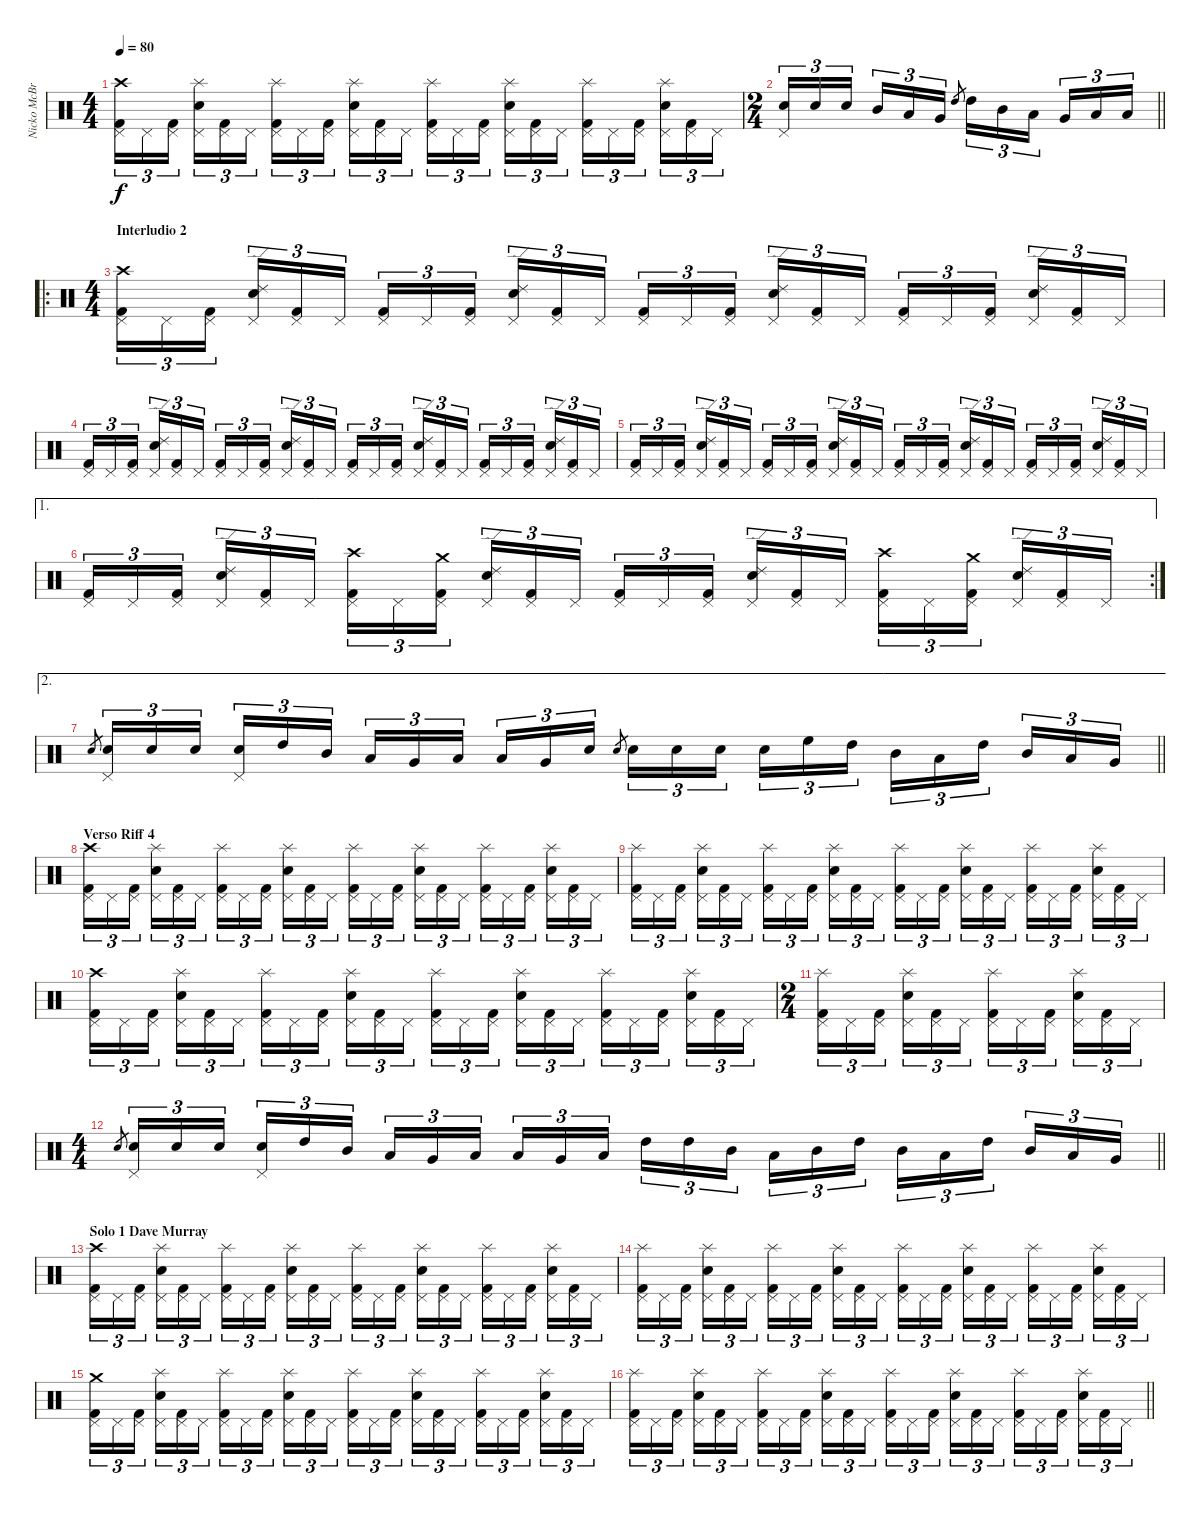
\track ("Nicko McBrain" "Nicko McBr") {instrument percussion}
\staff {score}
\articulation defaults
\ts (4 4)
\tempo 80
\clef neutral
\ks c
("Kick (hit) 2" "Pedal Hi-Hat (hit)" "Crash high (hit)").16{tu (3 2) dy f} "Pedal Hi-Hat (hit)".16{tu (3 2)} ("Kick (hit) 2" "Pedal Hi-Hat (hit)").16{tu (3 2) beam splitsecondary} ("Snare (hit) 2" "Pedal Hi-Hat (hit)" "Splash (hit)").16{tu (3 2)} ("Kick (hit) 2" "Pedal Hi-Hat (hit)").16{tu (3 2)} "Pedal Hi-Hat (hit)".16{tu (3 2)} ("Kick (hit) 2" "Pedal Hi-Hat (hit)" "Splash (hit)").16{tu (3 2)} "Pedal Hi-Hat (hit)".16{tu (3 2)} ("Kick (hit) 2" "Pedal Hi-Hat (hit)").16{tu (3 2) beam splitsecondary} ("Snare (hit) 2" "Pedal Hi-Hat (hit)" "Splash (hit)").16{tu (3 2)} ("Kick (hit) 2" "Pedal Hi-Hat (hit)").16{tu (3 2)} "Pedal Hi-Hat (hit)".16{tu (3 2)} ("Kick (hit) 2" "Pedal Hi-Hat (hit)" "Splash (hit)").16{tu (3 2)} "Pedal Hi-Hat (hit)".16{tu (3 2)} ("Kick (hit) 2" "Pedal Hi-Hat (hit)").16{tu (3 2) beam splitsecondary} ("Snare (hit) 2" "Pedal Hi-Hat (hit)" "Splash (hit)").16{tu (3 2)} ("Kick (hit) 2" "Pedal Hi-Hat (hit)").16{tu (3 2)} "Pedal Hi-Hat (hit)".16{tu (3 2)} ("Kick (hit) 2" "Pedal Hi-Hat (hit)" "Splash (hit)").16{tu (3 2)} "Pedal Hi-Hat (hit)".16{tu (3 2)} ("Kick (hit) 2" "Pedal Hi-Hat (hit)").16{tu (3 2) beam splitsecondary} ("Snare (hit) 2" "Pedal Hi-Hat (hit)" "Splash (hit)").16{tu (3 2)} ("Kick (hit) 2" "Pedal Hi-Hat (hit)").16{tu (3 2)} "Pedal Hi-Hat (hit)".16{tu (3 2)} |
\ts (2 4)
\barLineRight lightlight
("Snare (hit) 2" "Pedal Hi-Hat (hit)").16{tu (3 2)} "Snare (hit) 2".16{tu (3 2)} "Snare (hit) 2".16{tu (3 2) beam splitsecondary} "Mid Tom (hit)".16{tu (3 2)} "Low Tom (hit)".16{tu (3 2)} "Very Low Tom (hit)".16{tu (3 2)} "High Tom (hit)".8{gr} "High Tom (hit)".16{tu (3 2)} "Mid Tom (hit)".16{tu (3 2)} "Low Tom (hit)".16{tu (3 2) beam splitsecondary} "Very Low Tom (hit)".16{tu (3 2)} "Low Tom (hit)".16{tu (3 2)} "Low Floor Tom (hit)".16{tu (3 2)} |
\ro
\ts (4 4)
\section ("" "Interludio 2")
("Kick (hit) 2" "Pedal Hi-Hat (hit)" "Crash high (hit)").16{tu (3 2)} "Pedal Hi-Hat (hit)".16{tu (3 2)} ("Kick (hit) 2" "Pedal Hi-Hat (hit)").16{tu (3 2) beam splitsecondary} ("Snare (hit) 2" "Pedal Hi-Hat (hit)" "Ride (edge) 2").16{tu (3 2)} ("Kick (hit) 2" "Pedal Hi-Hat (hit)").16{tu (3 2)} "Pedal Hi-Hat (hit)".16{tu (3 2)} ("Kick (hit) 2" "Pedal Hi-Hat (hit)").16{tu (3 2)} "Pedal Hi-Hat (hit)".16{tu (3 2)} ("Kick (hit) 2" "Pedal Hi-Hat (hit)").16{tu (3 2) beam splitsecondary} ("Snare (hit) 2" "Pedal Hi-Hat (hit)" "Ride (edge) 2").16{tu (3 2)} ("Kick (hit) 2" "Pedal Hi-Hat (hit)").16{tu (3 2)} "Pedal Hi-Hat (hit)".16{tu (3 2)} ("Kick (hit) 2" "Pedal Hi-Hat (hit)").16{tu (3 2)} "Pedal Hi-Hat (hit)".16{tu (3 2)} ("Kick (hit) 2" "Pedal Hi-Hat (hit)").16{tu (3 2) beam splitsecondary} ("Snare (hit) 2" "Pedal Hi-Hat (hit)" "Ride (edge) 2").16{tu (3 2)} ("Kick (hit) 2" "Pedal Hi-Hat (hit)").16{tu (3 2)} "Pedal Hi-Hat (hit)".16{tu (3 2)} ("Kick (hit) 2" "Pedal Hi-Hat (hit)").16{tu (3 2)} "Pedal Hi-Hat (hit)".16{tu (3 2)} ("Kick (hit) 2" "Pedal Hi-Hat (hit)").16{tu (3 2) beam splitsecondary} ("Snare (hit) 2" "Pedal Hi-Hat (hit)" "Ride (edge) 2").16{tu (3 2)} ("Kick (hit) 2" "Pedal Hi-Hat (hit)").16{tu (3 2)} "Pedal Hi-Hat (hit)".16{tu (3 2)} |
("Kick (hit) 2" "Pedal Hi-Hat (hit)").16{tu (3 2)} "Pedal Hi-Hat (hit)".16{tu (3 2)} ("Kick (hit) 2" "Pedal Hi-Hat (hit)").16{tu (3 2) beam splitsecondary} ("Snare (hit) 2" "Pedal Hi-Hat (hit)" "Ride (edge) 2").16{tu (3 2)} ("Kick (hit) 2" "Pedal Hi-Hat (hit)").16{tu (3 2)} "Pedal Hi-Hat (hit)".16{tu (3 2)} ("Kick (hit) 2" "Pedal Hi-Hat (hit)").16{tu (3 2)} "Pedal Hi-Hat (hit)".16{tu (3 2)} ("Kick (hit) 2" "Pedal Hi-Hat (hit)").16{tu (3 2) beam splitsecondary} ("Snare (hit) 2" "Pedal Hi-Hat (hit)" "Ride (edge) 2").16{tu (3 2)} ("Kick (hit) 2" "Pedal Hi-Hat (hit)").16{tu (3 2)} "Pedal Hi-Hat (hit)".16{tu (3 2)} ("Kick (hit) 2" "Pedal Hi-Hat (hit)").16{tu (3 2)} "Pedal Hi-Hat (hit)".16{tu (3 2)} ("Kick (hit) 2" "Pedal Hi-Hat (hit)").16{tu (3 2) beam splitsecondary} ("Snare (hit) 2" "Pedal Hi-Hat (hit)" "Ride (edge) 2").16{tu (3 2)} ("Kick (hit) 2" "Pedal Hi-Hat (hit)").16{tu (3 2)} "Pedal Hi-Hat (hit)".16{tu (3 2)} ("Kick (hit) 2" "Pedal Hi-Hat (hit)").16{tu (3 2)} "Pedal Hi-Hat (hit)".16{tu (3 2)} ("Kick (hit) 2" "Pedal Hi-Hat (hit)").16{tu (3 2) beam splitsecondary} ("Snare (hit) 2" "Pedal Hi-Hat (hit)" "Ride (edge) 2").16{tu (3 2)} ("Kick (hit) 2" "Pedal Hi-Hat (hit)").16{tu (3 2)} "Pedal Hi-Hat (hit)".16{tu (3 2)} |
("Kick (hit) 2" "Pedal Hi-Hat (hit)").16{tu (3 2)} "Pedal Hi-Hat (hit)".16{tu (3 2)} ("Kick (hit) 2" "Pedal Hi-Hat (hit)").16{tu (3 2) beam splitsecondary} ("Snare (hit) 2" "Pedal Hi-Hat (hit)" "Ride (edge) 2").16{tu (3 2)} ("Kick (hit) 2" "Pedal Hi-Hat (hit)").16{tu (3 2)} "Pedal Hi-Hat (hit)".16{tu (3 2)} ("Kick (hit) 2" "Pedal Hi-Hat (hit)").16{tu (3 2)} "Pedal Hi-Hat (hit)".16{tu (3 2)} ("Kick (hit) 2" "Pedal Hi-Hat (hit)").16{tu (3 2) beam splitsecondary} ("Snare (hit) 2" "Pedal Hi-Hat (hit)" "Ride (edge) 2").16{tu (3 2)} ("Kick (hit) 2" "Pedal Hi-Hat (hit)").16{tu (3 2)} "Pedal Hi-Hat (hit)".16{tu (3 2)} ("Kick (hit) 2" "Pedal Hi-Hat (hit)").16{tu (3 2)} "Pedal Hi-Hat (hit)".16{tu (3 2)} ("Kick (hit) 2" "Pedal Hi-Hat (hit)").16{tu (3 2) beam splitsecondary} ("Snare (hit) 2" "Pedal Hi-Hat (hit)" "Ride (edge) 2").16{tu (3 2)} ("Kick (hit) 2" "Pedal Hi-Hat (hit)").16{tu (3 2)} "Pedal Hi-Hat (hit)".16{tu (3 2)} ("Kick (hit) 2" "Pedal Hi-Hat (hit)").16{tu (3 2)} "Pedal Hi-Hat (hit)".16{tu (3 2)} ("Kick (hit) 2" "Pedal Hi-Hat (hit)").16{tu (3 2) beam splitsecondary} ("Snare (hit) 2" "Pedal Hi-Hat (hit)" "Ride (edge) 2").16{tu (3 2)} ("Kick (hit) 2" "Pedal Hi-Hat (hit)").16{tu (3 2)} "Pedal Hi-Hat (hit)".16{tu (3 2)} |
\ae 1
\rc 2
("Kick (hit) 2" "Pedal Hi-Hat (hit)").16{tu (3 2)} "Pedal Hi-Hat (hit)".16{tu (3 2)} ("Kick (hit) 2" "Pedal Hi-Hat (hit)").16{tu (3 2) beam splitsecondary} ("Snare (hit) 2" "Pedal Hi-Hat (hit)" "Ride (edge) 2").16{tu (3 2)} ("Kick (hit) 2" "Pedal Hi-Hat (hit)").16{tu (3 2)} "Pedal Hi-Hat (hit)".16{tu (3 2)} ("Kick (hit) 2" "Pedal Hi-Hat (hit)" "Crash high (hit)").16{tu (3 2)} "Pedal Hi-Hat (hit)".16{tu (3 2)} ("Kick (hit) 2" "Pedal Hi-Hat (hit)" "Crash medium (hit)").16{tu (3 2) beam splitsecondary} ("Snare (hit) 2" "Pedal Hi-Hat (hit)" "Ride (edge) 2").16{tu (3 2)} ("Kick (hit) 2" "Pedal Hi-Hat (hit)").16{tu (3 2)} "Pedal Hi-Hat (hit)".16{tu (3 2)} ("Kick (hit) 2" "Pedal Hi-Hat (hit)").16{tu (3 2)} "Pedal Hi-Hat (hit)".16{tu (3 2)} ("Kick (hit) 2" "Pedal Hi-Hat (hit)").16{tu (3 2) beam splitsecondary} ("Snare (hit) 2" "Pedal Hi-Hat (hit)" "Ride (edge) 2").16{tu (3 2)} ("Kick (hit) 2" "Pedal Hi-Hat (hit)").16{tu (3 2)} "Pedal Hi-Hat (hit)".16{tu (3 2)} ("Kick (hit) 2" "Pedal Hi-Hat (hit)" "Crash high (hit)").16{tu (3 2)} "Pedal Hi-Hat (hit)".16{tu (3 2)} ("Kick (hit) 2" "Pedal Hi-Hat (hit)" "Crash medium (hit)").16{tu (3 2) beam splitsecondary} ("Snare (hit) 2" "Pedal Hi-Hat (hit)" "Ride (edge) 2").16{tu (3 2)} ("Kick (hit) 2" "Pedal Hi-Hat (hit)").16{tu (3 2)} "Pedal Hi-Hat (hit)".16{tu (3 2)} |
\ae 2
\barLineRight lightlight "Snare (hit) 2".8{gr}
("Snare (hit) 2" "Pedal Hi-Hat (hit)").16{tu (3 2)} "Snare (hit) 2".16{tu (3 2)} "Snare (hit) 2".16{tu (3 2) beam splitsecondary} ("Snare (hit) 2" "Pedal Hi-Hat (hit)").16{tu (3 2)} "High Tom (hit)".16{tu (3 2)} "Mid Tom (hit)".16{tu (3 2)} "Low Tom (hit)".16{tu (3 2)} "Very Low Tom (hit)".16{tu (3 2)} "Low Floor Tom (hit)".16{tu (3 2) beam splitsecondary} "Low Tom (hit)".16{tu (3 2)} "Very Low Tom (hit)".16{tu (3 2)} "Snare (hit) 2".16{tu (3 2)} "Snare (hit) 2".8{gr} "Snare (hit) 2".16{tu (3 2)} "Snare (hit) 2".16{tu (3 2)} "Snare (hit) 2".16{tu (3 2) beam splitsecondary} "Snare (hit) 2".16{tu (3 2)} "High Floor Tom (hit)".16{tu (3 2)} "High Tom (hit)".16{tu (3 2)} "Mid Tom (hit)".16{tu (3 2)} "Low Tom (hit)".16{tu (3 2)} "High Tom (hit)".16{tu (3 2) beam splitsecondary} "Mid Tom (hit)".16{tu (3 2)} "Low Tom (hit)".16{tu (3 2)} "Very Low Tom (hit)".16{tu (3 2)} |
\section ("" "Verso Riff 4")
("Kick (hit) 2" "Pedal Hi-Hat (hit)" "Crash high (hit)").16{tu (3 2)} "Pedal Hi-Hat (hit)".16{tu (3 2)} ("Kick (hit) 2" "Pedal Hi-Hat (hit)").16{tu (3 2) beam splitsecondary} ("Snare (hit) 2" "Pedal Hi-Hat (hit)" "Splash (hit)").16{tu (3 2)} ("Kick (hit) 2" "Pedal Hi-Hat (hit)").16{tu (3 2)} "Pedal Hi-Hat (hit)".16{tu (3 2)} ("Kick (hit) 2" "Pedal Hi-Hat (hit)" "Splash (hit)").16{tu (3 2)} "Pedal Hi-Hat (hit)".16{tu (3 2)} ("Kick (hit) 2" "Pedal Hi-Hat (hit)").16{tu (3 2) beam splitsecondary} ("Snare (hit) 2" "Pedal Hi-Hat (hit)" "Splash (hit)").16{tu (3 2)} ("Kick (hit) 2" "Pedal Hi-Hat (hit)").16{tu (3 2)} "Pedal Hi-Hat (hit)".16{tu (3 2)} ("Kick (hit) 2" "Pedal Hi-Hat (hit)" "Splash (hit)").16{tu (3 2)} "Pedal Hi-Hat (hit)".16{tu (3 2)} ("Kick (hit) 2" "Pedal Hi-Hat (hit)").16{tu (3 2) beam splitsecondary} ("Snare (hit) 2" "Pedal Hi-Hat (hit)" "Splash (hit)").16{tu (3 2)} ("Kick (hit) 2" "Pedal Hi-Hat (hit)").16{tu (3 2)} "Pedal Hi-Hat (hit)".16{tu (3 2)} ("Kick (hit) 2" "Pedal Hi-Hat (hit)" "Splash (hit)").16{tu (3 2)} "Pedal Hi-Hat (hit)".16{tu (3 2)} ("Kick (hit) 2" "Pedal Hi-Hat (hit)").16{tu (3 2) beam splitsecondary} ("Snare (hit) 2" "Pedal Hi-Hat (hit)" "Splash (hit)").16{tu (3 2)} ("Kick (hit) 2" "Pedal Hi-Hat (hit)").16{tu (3 2)} "Pedal Hi-Hat (hit)".16{tu (3 2)} |
("Kick (hit) 2" "Pedal Hi-Hat (hit)" "Splash (hit)").16{tu (3 2)} "Pedal Hi-Hat (hit)".16{tu (3 2)} ("Kick (hit) 2" "Pedal Hi-Hat (hit)").16{tu (3 2) beam splitsecondary} ("Snare (hit) 2" "Pedal Hi-Hat (hit)" "Splash (hit)").16{tu (3 2)} ("Kick (hit) 2" "Pedal Hi-Hat (hit)").16{tu (3 2)} "Pedal Hi-Hat (hit)".16{tu (3 2)} ("Kick (hit) 2" "Pedal Hi-Hat (hit)" "Splash (hit)").16{tu (3 2)} "Pedal Hi-Hat (hit)".16{tu (3 2)} ("Kick (hit) 2" "Pedal Hi-Hat (hit)").16{tu (3 2) beam splitsecondary} ("Snare (hit) 2" "Pedal Hi-Hat (hit)" "Splash (hit)").16{tu (3 2)} ("Kick (hit) 2" "Pedal Hi-Hat (hit)").16{tu (3 2)} "Pedal Hi-Hat (hit)".16{tu (3 2)} ("Kick (hit) 2" "Pedal Hi-Hat (hit)" "Splash (hit)").16{tu (3 2)} "Pedal Hi-Hat (hit)".16{tu (3 2)} ("Kick (hit) 2" "Pedal Hi-Hat (hit)").16{tu (3 2) beam splitsecondary} ("Snare (hit) 2" "Pedal Hi-Hat (hit)" "Splash (hit)").16{tu (3 2)} ("Kick (hit) 2" "Pedal Hi-Hat (hit)").16{tu (3 2)} "Pedal Hi-Hat (hit)".16{tu (3 2)} ("Kick (hit) 2" "Pedal Hi-Hat (hit)" "Splash (hit)").16{tu (3 2)} "Pedal Hi-Hat (hit)".16{tu (3 2)} ("Kick (hit) 2" "Pedal Hi-Hat (hit)").16{tu (3 2) beam splitsecondary} ("Snare (hit) 2" "Pedal Hi-Hat (hit)" "Splash (hit)").16{tu (3 2)} ("Kick (hit) 2" "Pedal Hi-Hat (hit)").16{tu (3 2)} "Pedal Hi-Hat (hit)".16{tu (3 2)} |
("Kick (hit) 2" "Pedal Hi-Hat (hit)" "Crash high (hit)").16{tu (3 2)} "Pedal Hi-Hat (hit)".16{tu (3 2)} ("Kick (hit) 2" "Pedal Hi-Hat (hit)").16{tu (3 2) beam splitsecondary} ("Snare (hit) 2" "Pedal Hi-Hat (hit)" "Splash (hit)").16{tu (3 2)} ("Kick (hit) 2" "Pedal Hi-Hat (hit)").16{tu (3 2)} "Pedal Hi-Hat (hit)".16{tu (3 2)} ("Kick (hit) 2" "Pedal Hi-Hat (hit)" "Splash (hit)").16{tu (3 2)} "Pedal Hi-Hat (hit)".16{tu (3 2)} ("Kick (hit) 2" "Pedal Hi-Hat (hit)").16{tu (3 2) beam splitsecondary} ("Snare (hit) 2" "Pedal Hi-Hat (hit)" "Splash (hit)").16{tu (3 2)} ("Kick (hit) 2" "Pedal Hi-Hat (hit)").16{tu (3 2)} "Pedal Hi-Hat (hit)".16{tu (3 2)} ("Kick (hit) 2" "Pedal Hi-Hat (hit)" "Splash (hit)").16{tu (3 2)} "Pedal Hi-Hat (hit)".16{tu (3 2)} ("Kick (hit) 2" "Pedal Hi-Hat (hit)").16{tu (3 2) beam splitsecondary} ("Snare (hit) 2" "Pedal Hi-Hat (hit)" "Splash (hit)").16{tu (3 2)} ("Kick (hit) 2" "Pedal Hi-Hat (hit)").16{tu (3 2)} "Pedal Hi-Hat (hit)".16{tu (3 2)} ("Kick (hit) 2" "Pedal Hi-Hat (hit)" "Splash (hit)").16{tu (3 2)} "Pedal Hi-Hat (hit)".16{tu (3 2)} ("Kick (hit) 2" "Pedal Hi-Hat (hit)").16{tu (3 2) beam splitsecondary} ("Snare (hit) 2" "Pedal Hi-Hat (hit)" "Splash (hit)").16{tu (3 2)} ("Kick (hit) 2" "Pedal Hi-Hat (hit)").16{tu (3 2)} "Pedal Hi-Hat (hit)".16{tu (3 2)} |
\ts (2 4)
("Kick (hit) 2" "Pedal Hi-Hat (hit)" "Splash (hit)").16{tu (3 2)} "Pedal Hi-Hat (hit)".16{tu (3 2)} ("Kick (hit) 2" "Pedal Hi-Hat (hit)").16{tu (3 2) beam splitsecondary} ("Snare (hit) 2" "Pedal Hi-Hat (hit)" "Splash (hit)").16{tu (3 2)} ("Kick (hit) 2" "Pedal Hi-Hat (hit)").16{tu (3 2)} "Pedal Hi-Hat (hit)".16{tu (3 2)} ("Kick (hit) 2" "Pedal Hi-Hat (hit)" "Splash (hit)").16{tu (3 2)} "Pedal Hi-Hat (hit)".16{tu (3 2)} ("Kick (hit) 2" "Pedal Hi-Hat (hit)").16{tu (3 2) beam splitsecondary} ("Snare (hit) 2" "Pedal Hi-Hat (hit)" "Splash (hit)").16{tu (3 2)} ("Kick (hit) 2" "Pedal Hi-Hat (hit)").16{tu (3 2)} "Pedal Hi-Hat (hit)".16{tu (3 2)} |
\ts (4 4)
\barLineRight lightlight "Snare (hit) 2".8{gr}
("Snare (hit) 2" "Pedal Hi-Hat (hit)").16{tu (3 2)} "Snare (hit) 2".16{tu (3 2)} "Snare (hit) 2".16{tu (3 2) beam splitsecondary} ("Snare (hit) 2" "Pedal Hi-Hat (hit)").16{tu (3 2)} "High Tom (hit)".16{tu (3 2)} "Mid Tom (hit)".16{tu (3 2)} "Low Tom (hit)".16{tu (3 2)} "Very Low Tom (hit)".16{tu (3 2)} "Low Floor Tom (hit)".16{tu (3 2) beam splitsecondary} "Low Tom (hit)".16{tu (3 2)} "Very Low Tom (hit)".16{tu (3 2)} "Low Floor Tom (hit)".16{tu (3 2)} "High Tom (hit)".16{tu (3 2)} "High Tom (hit)".16{tu (3 2)} "Mid Tom (hit)".16{tu (3 2) beam splitsecondary} "Low Tom (hit)".16{tu (3 2)} "Mid Tom (hit)".16{tu (3 2)} "High Tom (hit)".16{tu (3 2)} "Mid Tom (hit)".16{tu (3 2)} "Low Tom (hit)".16{tu (3 2)} "High Tom (hit)".16{tu (3 2) beam splitsecondary} "Mid Tom (hit)".16{tu (3 2)} "Low Tom (hit)".16{tu (3 2)} "Very Low Tom (hit)".16{tu (3 2)} |
\section ("" "Solo 1 Dave Murray")
("Kick (hit) 2" "Pedal Hi-Hat (hit)" "Crash high (hit)").16{tu (3 2)} "Pedal Hi-Hat (hit)".16{tu (3 2)} ("Kick (hit) 2" "Pedal Hi-Hat (hit)").16{tu (3 2) beam splitsecondary} ("Snare (hit) 2" "Pedal Hi-Hat (hit)" "Splash (hit)").16{tu (3 2)} ("Kick (hit) 2" "Pedal Hi-Hat (hit)").16{tu (3 2)} "Pedal Hi-Hat (hit)".16{tu (3 2)} ("Kick (hit) 2" "Pedal Hi-Hat (hit)" "Splash (hit)").16{tu (3 2)} "Pedal Hi-Hat (hit)".16{tu (3 2)} ("Kick (hit) 2" "Pedal Hi-Hat (hit)").16{tu (3 2) beam splitsecondary} ("Snare (hit) 2" "Pedal Hi-Hat (hit)" "Splash (hit)").16{tu (3 2)} ("Kick (hit) 2" "Pedal Hi-Hat (hit)").16{tu (3 2)} "Pedal Hi-Hat (hit)".16{tu (3 2)} ("Kick (hit) 2" "Pedal Hi-Hat (hit)" "Splash (hit)").16{tu (3 2)} "Pedal Hi-Hat (hit)".16{tu (3 2)} ("Kick (hit) 2" "Pedal Hi-Hat (hit)").16{tu (3 2) beam splitsecondary} ("Snare (hit) 2" "Pedal Hi-Hat (hit)" "Splash (hit)").16{tu (3 2)} ("Kick (hit) 2" "Pedal Hi-Hat (hit)").16{tu (3 2)} "Pedal Hi-Hat (hit)".16{tu (3 2)} ("Kick (hit) 2" "Pedal Hi-Hat (hit)" "Splash (hit)").16{tu (3 2)} "Pedal Hi-Hat (hit)".16{tu (3 2)} ("Kick (hit) 2" "Pedal Hi-Hat (hit)").16{tu (3 2) beam splitsecondary} ("Snare (hit) 2" "Pedal Hi-Hat (hit)" "Splash (hit)").16{tu (3 2)} ("Kick (hit) 2" "Pedal Hi-Hat (hit)").16{tu (3 2)} "Pedal Hi-Hat (hit)".16{tu (3 2)} |
("Kick (hit) 2" "Pedal Hi-Hat (hit)" "Splash (hit)").16{tu (3 2)} "Pedal Hi-Hat (hit)".16{tu (3 2)} ("Kick (hit) 2" "Pedal Hi-Hat (hit)").16{tu (3 2) beam splitsecondary} ("Snare (hit) 2" "Pedal Hi-Hat (hit)" "Splash (hit)").16{tu (3 2)} ("Kick (hit) 2" "Pedal Hi-Hat (hit)").16{tu (3 2)} "Pedal Hi-Hat (hit)".16{tu (3 2)} ("Kick (hit) 2" "Pedal Hi-Hat (hit)" "Splash (hit)").16{tu (3 2)} "Pedal Hi-Hat (hit)".16{tu (3 2)} ("Kick (hit) 2" "Pedal Hi-Hat (hit)").16{tu (3 2) beam splitsecondary} ("Snare (hit) 2" "Pedal Hi-Hat (hit)" "Splash (hit)").16{tu (3 2)} ("Kick (hit) 2" "Pedal Hi-Hat (hit)").16{tu (3 2)} "Pedal Hi-Hat (hit)".16{tu (3 2)} ("Kick (hit) 2" "Pedal Hi-Hat (hit)" "Splash (hit)").16{tu (3 2)} "Pedal Hi-Hat (hit)".16{tu (3 2)} ("Kick (hit) 2" "Pedal Hi-Hat (hit)").16{tu (3 2) beam splitsecondary} ("Snare (hit) 2" "Pedal Hi-Hat (hit)" "Splash (hit)").16{tu (3 2)} ("Kick (hit) 2" "Pedal Hi-Hat (hit)").16{tu (3 2)} "Pedal Hi-Hat (hit)".16{tu (3 2)} ("Kick (hit) 2" "Pedal Hi-Hat (hit)" "Splash (hit)").16{tu (3 2)} "Pedal Hi-Hat (hit)".16{tu (3 2)} ("Kick (hit) 2" "Pedal Hi-Hat (hit)").16{tu (3 2) beam splitsecondary} ("Snare (hit) 2" "Pedal Hi-Hat (hit)" "Splash (hit)").16{tu (3 2)} ("Kick (hit) 2" "Pedal Hi-Hat (hit)").16{tu (3 2)} "Pedal Hi-Hat (hit)".16{tu (3 2)} |
("Kick (hit) 2" "Pedal Hi-Hat (hit)" "Crash medium (hit)").16{tu (3 2)} "Pedal Hi-Hat (hit)".16{tu (3 2)} ("Kick (hit) 2" "Pedal Hi-Hat (hit)").16{tu (3 2) beam splitsecondary} ("Snare (hit) 2" "Pedal Hi-Hat (hit)" "Splash (hit)").16{tu (3 2)} ("Kick (hit) 2" "Pedal Hi-Hat (hit)").16{tu (3 2)} "Pedal Hi-Hat (hit)".16{tu (3 2)} ("Kick (hit) 2" "Pedal Hi-Hat (hit)" "Splash (hit)").16{tu (3 2)} "Pedal Hi-Hat (hit)".16{tu (3 2)} ("Kick (hit) 2" "Pedal Hi-Hat (hit)").16{tu (3 2) beam splitsecondary} ("Snare (hit) 2" "Pedal Hi-Hat (hit)" "Splash (hit)").16{tu (3 2)} ("Kick (hit) 2" "Pedal Hi-Hat (hit)").16{tu (3 2)} "Pedal Hi-Hat (hit)".16{tu (3 2)} ("Kick (hit) 2" "Pedal Hi-Hat (hit)" "Splash (hit)").16{tu (3 2)} "Pedal Hi-Hat (hit)".16{tu (3 2)} ("Kick (hit) 2" "Pedal Hi-Hat (hit)").16{tu (3 2) beam splitsecondary} ("Snare (hit) 2" "Pedal Hi-Hat (hit)" "Splash (hit)").16{tu (3 2)} ("Kick (hit) 2" "Pedal Hi-Hat (hit)").16{tu (3 2)} "Pedal Hi-Hat (hit)".16{tu (3 2)} ("Kick (hit) 2" "Pedal Hi-Hat (hit)" "Splash (hit)").16{tu (3 2)} "Pedal Hi-Hat (hit)".16{tu (3 2)} ("Kick (hit) 2" "Pedal Hi-Hat (hit)").16{tu (3 2) beam splitsecondary} ("Snare (hit) 2" "Pedal Hi-Hat (hit)" "Splash (hit)").16{tu (3 2)} ("Kick (hit) 2" "Pedal Hi-Hat (hit)").16{tu (3 2)} "Pedal Hi-Hat (hit)".16{tu (3 2)} |
\barLineRight lightlight
("Kick (hit) 2" "Pedal Hi-Hat (hit)" "Splash (hit)").16{tu (3 2)} "Pedal Hi-Hat (hit)".16{tu (3 2)} ("Kick (hit) 2" "Pedal Hi-Hat (hit)").16{tu (3 2) beam splitsecondary} ("Snare (hit) 2" "Pedal Hi-Hat (hit)" "Splash (hit)").16{tu (3 2)} ("Kick (hit) 2" "Pedal Hi-Hat (hit)").16{tu (3 2)} "Pedal Hi-Hat (hit)".16{tu (3 2)} ("Kick (hit) 2" "Pedal Hi-Hat (hit)" "Splash (hit)").16{tu (3 2)} "Pedal Hi-Hat (hit)".16{tu (3 2)} ("Kick (hit) 2" "Pedal Hi-Hat (hit)").16{tu (3 2) beam splitsecondary} ("Snare (hit) 2" "Pedal Hi-Hat (hit)" "Splash (hit)").16{tu (3 2)} ("Kick (hit) 2" "Pedal Hi-Hat (hit)").16{tu (3 2)} "Pedal Hi-Hat (hit)".16{tu (3 2)} ("Kick (hit) 2" "Pedal Hi-Hat (hit)" "Splash (hit)").16{tu (3 2)} "Pedal Hi-Hat (hit)".16{tu (3 2)} ("Kick (hit) 2" "Pedal Hi-Hat (hit)").16{tu (3 2) beam splitsecondary} ("Snare (hit) 2" "Pedal Hi-Hat (hit)" "Splash (hit)").16{tu (3 2)} ("Kick (hit) 2" "Pedal Hi-Hat (hit)").16{tu (3 2)} "Pedal Hi-Hat (hit)".16{tu (3 2)} ("Kick (hit) 2" "Pedal Hi-Hat (hit)" "Splash (hit)").16{tu (3 2)} "Pedal Hi-Hat (hit)".16{tu (3 2)} ("Kick (hit) 2" "Pedal Hi-Hat (hit)").16{tu (3 2) beam splitsecondary} ("Snare (hit) 2" "Pedal Hi-Hat (hit)" "Splash (hit)").16{tu (3 2)} ("Kick (hit) 2" "Pedal Hi-Hat (hit)").16{tu (3 2)} "Pedal Hi-Hat (hit)".16{tu (3 2)}
